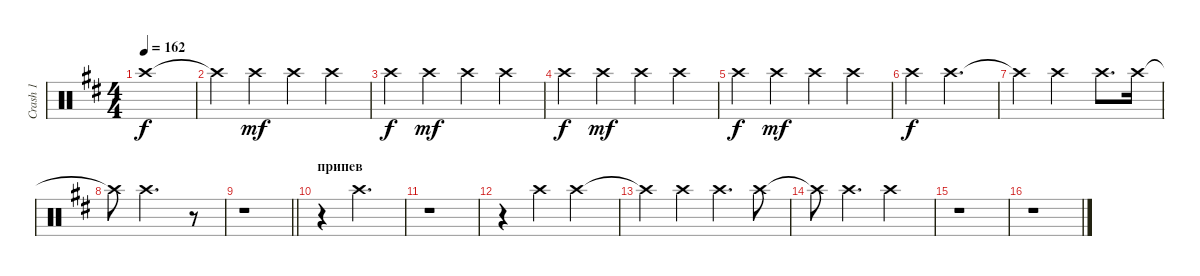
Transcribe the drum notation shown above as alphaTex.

\track ("Crash 1" "Crash 1") {instrument percussion}
\staff {score}
\articulation defaults
\ts (4 4)
\tempo 162
\clef neutral
\ks bminor "Crash high (hit)"{t}.1{dy f}
|
"Crash high (hit)"{t}.4 "Crash high (hit)".4{dy mf} "Crash high (hit)".4 "Crash high (hit)".4 |
"Crash high (hit)".4{dy f} "Crash high (hit)".4{dy mf} "Crash high (hit)".4 "Crash high (hit)".4 |
"Crash high (hit)".4{dy f} "Crash high (hit)".4{dy mf} "Crash high (hit)".4 "Crash high (hit)".4 |
"Crash high (hit)".4{dy f} "Crash high (hit)".4{dy mf} "Crash high (hit)".4 "Crash high (hit)".4 |
"Crash high (hit)".4{dy f} "Crash high (hit)".2{d} |
"Crash high (hit)"{t}.4 "Crash high (hit)".2 "Crash high (hit)".8{d} "Crash high (hit)".16 |
"Crash high (hit)"{t}.8 "Crash high (hit)".2{d} r.8 |
\barLineRight lightlight
r.1 |
\section ("" "припев")
r.4 "Crash high (hit)".2{d} |
r.1 |
r.4 "Crash high (hit)".4 "Crash high (hit)".2 |
"Crash high (hit)"{t}.4 "Crash high (hit)".4 "Crash high (hit)".4{d} "Crash high (hit)".8 |
"Crash high (hit)"{t}.8 "Crash high (hit)".4{d} "Crash high (hit)".2 |
r.1 |
r.1
